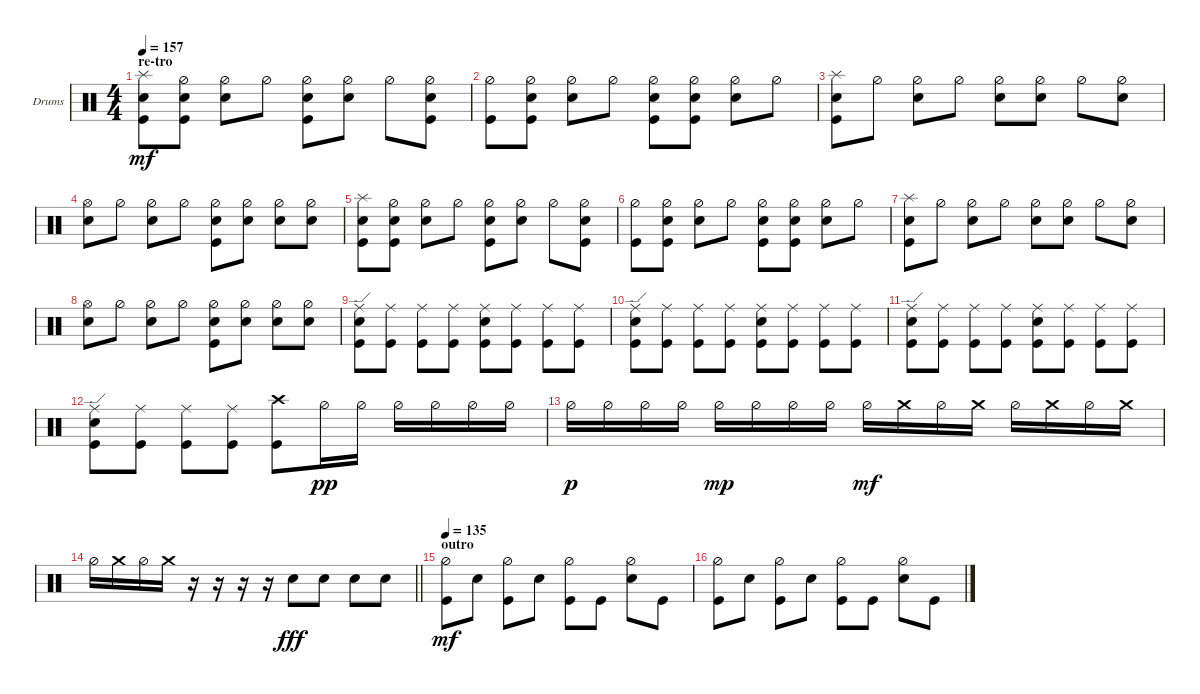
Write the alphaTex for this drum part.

\bracketExtendMode groupsimilarinstruments
\firstSystemTrackNameOrientation horizontal
\otherSystemsTrackNameOrientation horizontal
\track ("Drumkit" "Drums") {instrument percussion}
\staff {score}
\articulation defaults
\ts (4 4)
\section ("" "re-tro")
\tempo 157
\clef neutral
\scale
0.333333
\ks c
("Kick (hit)" "Splash (hit)" "Snare (hit) 2").8{dy mf} ("Kick (hit)" "Snare (hit) 2" "Hi-Hat (half)").8 ("Hi-Hat (half)" "Snare (hit) 2").8 "Hi-Hat (half)".8 ("Kick (hit)" "Snare (hit) 2" "Hi-Hat (half)").8 ("Hi-Hat (half)" "Snare (hit) 2").8 "Hi-Hat (half)".8 ("Snare (hit) 2" "Hi-Hat (half)" "Kick (hit)").8 |
\scale
0.333333 ("Kick (hit)" "Hi-Hat (half)").8 ("Snare (hit) 2" "Kick (hit)" "Hi-Hat (half)").8 ("Hi-Hat (half)" "Snare (hit) 2").8 "Hi-Hat (half)".8 ("Kick (hit)" "Snare (hit) 2" "Hi-Hat (half)").8 ("Snare (hit) 2" "Kick (hit)" "Hi-Hat (half)").8 ("Hi-Hat (half)" "Snare (hit) 2").8 "Hi-Hat (half)".8 |
\scale
0.333333 ("Snare (hit) 2" "Kick (hit)" "Splash (hit)").8 "Hi-Hat (half)".8 ("Snare (hit) 2" "Hi-Hat (half)").8 "Hi-Hat (half)".8 ("Hi-Hat (half)" "Snare (hit) 2").8 ("Hi-Hat (half)" "Snare (hit) 2").8 "Hi-Hat (half)".8 ("Hi-Hat (half)" "Snare (hit) 2").8 |
\scale
0.333333 ("Hi-Hat (open)" "Snare (hit) 2").8 "Hi-Hat (half)".8 ("Hi-Hat (half)" "Snare (hit) 2").8 "Hi-Hat (half)".8 ("Kick (hit)" "Hi-Hat (half)" "Snare (hit) 2").8 ("Hi-Hat (half)" "Snare (hit) 2").8 ("Hi-Hat (half)" "Snare (hit) 2").8 ("Hi-Hat (half)" "Snare (hit) 2").8 |
\scale
0.333333 ("Kick (hit)" "Splash (hit)" "Snare (hit) 2").8 ("Kick (hit)" "Snare (hit) 2" "Hi-Hat (half)").8 ("Hi-Hat (half)" "Snare (hit) 2").8 "Hi-Hat (half)".8 ("Kick (hit)" "Snare (hit) 2" "Hi-Hat (half)").8 ("Hi-Hat (half)" "Snare (hit) 2").8 "Hi-Hat (half)".8 ("Snare (hit) 2" "Hi-Hat (half)" "Kick (hit)").8 |
\scale
0.333333 ("Kick (hit)" "Hi-Hat (half)").8 ("Snare (hit) 2" "Kick (hit)" "Hi-Hat (half)").8 ("Hi-Hat (half)" "Snare (hit) 2").8 "Hi-Hat (half)".8 ("Kick (hit)" "Snare (hit) 2" "Hi-Hat (half)").8 ("Snare (hit) 2" "Kick (hit)" "Hi-Hat (half)").8 ("Hi-Hat (half)" "Snare (hit) 2").8 "Hi-Hat (half)".8 |
\scale
0.333333 ("Snare (hit) 2" "Kick (hit)" "Splash (hit)").8 "Hi-Hat (half)".8 ("Snare (hit) 2" "Hi-Hat (half)").8 "Hi-Hat (half)".8 ("Hi-Hat (half)" "Snare (hit) 2").8 ("Hi-Hat (half)" "Snare (hit) 2").8 "Hi-Hat (half)".8 ("Hi-Hat (half)" "Snare (hit) 2").8 |
\scale
0.333333 ("Hi-Hat (open)" "Snare (hit) 2").8 "Hi-Hat (half)".8 ("Hi-Hat (half)" "Snare (hit) 2").8 "Hi-Hat (half)".8 ("Kick (hit)" "Hi-Hat (half)" "Snare (hit) 2").8 ("Hi-Hat (half)" "Snare (hit) 2").8 ("Hi-Hat (half)" "Snare (hit) 2").8 ("Hi-Hat (half)" "Snare (hit) 2").8 |
\scale
0.333333 ("Kick (hit)" "Ride (edge)" "Snare (hit) 2").8 ("Kick (hit)" "Ride (middle)").8 ("Kick (hit)" "Ride (middle)").8 ("Kick (hit)" "Ride (middle)").8 ("Kick (hit)" "Ride (middle)" "Snare (hit) 2").8 ("Kick (hit)" "Ride (middle)").8 ("Kick (hit)" "Ride (middle)").8 ("Kick (hit)" "Ride (middle)").8 |
\scale
0.333333 ("Kick (hit)" "Ride (edge)" "Snare (hit) 2").8 ("Kick (hit)" "Ride (middle)").8 ("Kick (hit)" "Ride (middle)").8 ("Kick (hit)" "Ride (middle)").8 ("Kick (hit)" "Ride (middle)" "Snare (hit) 2").8 ("Kick (hit)" "Ride (middle)").8 ("Kick (hit)" "Ride (middle)").8 ("Kick (hit)" "Ride (middle)").8 |
\scale
0.333333 ("Kick (hit)" "Ride (edge)" "Snare (hit) 2").8 ("Kick (hit)" "Ride (middle)").8 ("Kick (hit)" "Ride (middle)").8 ("Kick (hit)" "Ride (middle)").8 ("Kick (hit)" "Ride (middle)" "Snare (hit) 2").8 ("Kick (hit)" "Ride (middle)").8 ("Kick (hit)" "Ride (middle)").8 ("Kick (hit)" "Ride (middle)").8 |
\scale
0.333333 ("Kick (hit)" "Ride (edge)" "Snare (hit) 2").8 ("Kick (hit)" "Ride (middle)").8 ("Kick (hit)" "Ride (middle)").8 ("Kick (hit)" "Ride (middle)").8 ("Kick (hit)" "Crash high (hit)").8 "Hi-Hat (half)".16{dy pp} "Hi-Hat (half)".16 "Hi-Hat (half)".16 "Hi-Hat (half)".16 "Hi-Hat (half)".16 "Hi-Hat (half)".16 |
\scale
0.333333 "Hi-Hat (half)".16{dy p} "Hi-Hat (half)".16 "Hi-Hat (half)".16 "Hi-Hat (half)".16 "Hi-Hat (half)".16{dy mp} "Hi-Hat (half)".16 "Hi-Hat (half)".16 "Hi-Hat (half)".16 "Hi-Hat (half)".16{dy mf} "Crash medium (hit)".16 "Hi-Hat (half)".16 "Crash medium (hit)".16 "Hi-Hat (half)".16 "Crash medium (hit)".16 "Hi-Hat (half)".16 "Crash medium (hit)".16 |
\scale
0.333333
\barLineRight lightlight "Hi-Hat (half)".16 "Crash medium (hit)".16 "Hi-Hat (half)".16 "Crash medium (hit)".16
r.16 r.16 r.16 r.16 "Snare (hit) 2".8{dy fff} "Snare (hit) 2".8 "Snare (hit) 2".8 "Snare (hit) 2".8 |
\section ("" "outro")
\tempo 135
\scale
0.333333 ("Kick (hit)" "Hi-Hat (half)").8{dy mf} "Snare (hit) 2".8 ("Kick (hit)" "Hi-Hat (half)").8 "Snare (hit) 2".8 ("Kick (hit)" "Hi-Hat (half)").8 "Kick (hit)".8 ("Snare (hit) 2" "Hi-Hat (half)").8 "Kick (hit)".8 |
\scale
0.333333 ("Kick (hit)" "Hi-Hat (half)").8 "Snare (hit) 2".8 ("Kick (hit)" "Hi-Hat (half)").8 "Snare (hit) 2".8 ("Kick (hit)" "Hi-Hat (half)").8 "Kick (hit)".8 ("Snare (hit) 2" "Hi-Hat (half)").8 "Kick (hit)".8
